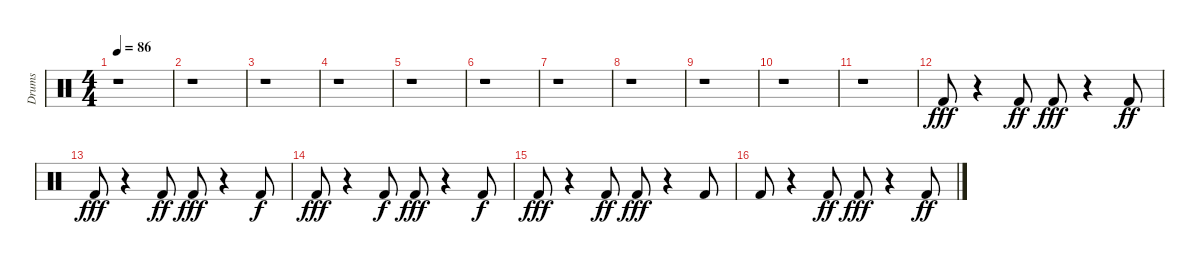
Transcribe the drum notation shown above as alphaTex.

\track ("Drums" "Drums") {instrument percussion}
\staff {score}
\articulation defaults
\ts (4 4)
\tempo 86
\clef neutral
\ks c
r.1{dy fff} |
r.1 |
r.1 |
r.1 |
r.1 |
r.1 |
r.1 |
r.1 |
r.1 |
r.1 |
r.1 |
"Kick (hit) 2".8 r.4 "Kick (hit) 2".8{dy ff} "Kick (hit) 2".8{dy fff} r.4 "Kick (hit) 2".8{dy ff} |
"Kick (hit) 2".8{dy fff} r.4 "Kick (hit) 2".8{dy ff} "Kick (hit) 2".8{dy fff} r.4 "Kick (hit) 2".8{dy f} |
"Kick (hit) 2".8{dy fff} r.4 "Kick (hit) 2".8{dy f} "Kick (hit) 2".8{dy fff} r.4 "Kick (hit) 2".8{dy f} |
"Kick (hit) 2".8{dy fff} r.4 "Kick (hit) 2".8{dy ff} "Kick (hit) 2".8{dy fff} r.4 "Kick (hit) 2".8 |
"Kick (hit) 2".8 r.4 "Kick (hit) 2".8{dy ff} "Kick (hit) 2".8{dy fff} r.4 "Kick (hit) 2".8{dy ff}
